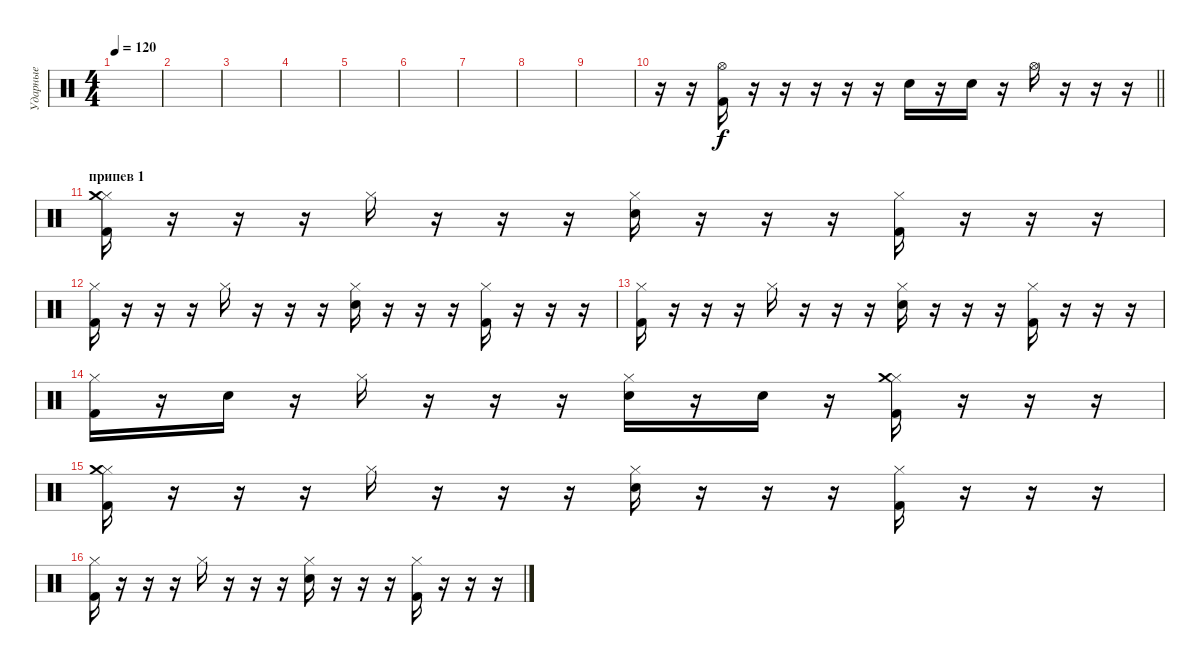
\track ("Ударные" "Ударные") {instrument percussion}
\staff {score}
\articulation defaults
\ts (4 4)
\tempo 120
\clef neutral
\ks c
|
|
|
|
|
|
|
|
|
\barLineRight lightlight
r.16 r.16 ("Hi-Hat (open)" "Kick (hit) 2").16 r.16 r.16 r.16 r.16 r.16 "Snare (hit) 2".16 r.16 "Snare (hit) 2".16 r.16 "Hi-Hat (open)".16 r.16 r.16 r.16 |
\section ("" "припев 1")
("Hi-Hat (closed)" "Kick (hit) 2" "Crash medium (hit)").16 r.16 r.16 r.16 "Hi-Hat (closed)".16 r.16 r.16 r.16 ("Hi-Hat (closed)" "Snare (hit) 2").16 r.16 r.16 r.16 ("Hi-Hat (closed)" "Kick (hit) 2").16 r.16 r.16 r.16 |
("Hi-Hat (closed)" "Kick (hit) 2").16 r.16 r.16 r.16 "Hi-Hat (closed)".16 r.16 r.16 r.16 ("Hi-Hat (closed)" "Snare (hit) 2").16 r.16 r.16 r.16 ("Hi-Hat (closed)" "Kick (hit) 2").16 r.16 r.16 r.16 |
("Hi-Hat (closed)" "Kick (hit) 2").16 r.16 r.16 r.16 "Hi-Hat (closed)".16 r.16 r.16 r.16 ("Hi-Hat (closed)" "Snare (hit) 2").16 r.16 r.16 r.16 ("Hi-Hat (closed)" "Kick (hit) 2").16 r.16 r.16 r.16 |
("Hi-Hat (closed)" "Kick (hit) 2").16 r.16 "Snare (hit) 2".16 r.16 "Hi-Hat (closed)".16 r.16 r.16 r.16 ("Hi-Hat (closed)" "Snare (hit) 2").16 r.16 "Snare (hit) 2".16 r.16 ("Hi-Hat (closed)" "Kick (hit) 2" "Crash medium (hit)").16 r.16 r.16 r.16 |
("Hi-Hat (closed)" "Kick (hit) 2" "Crash medium (hit)").16 r.16 r.16 r.16 "Hi-Hat (closed)".16 r.16 r.16 r.16 ("Hi-Hat (closed)" "Snare (hit) 2").16 r.16 r.16 r.16 ("Hi-Hat (closed)" "Kick (hit) 2").16 r.16 r.16 r.16 |
("Hi-Hat (closed)" "Kick (hit) 2").16 r.16 r.16 r.16 "Hi-Hat (closed)".16 r.16 r.16 r.16 ("Hi-Hat (closed)" "Snare (hit) 2").16 r.16 r.16 r.16 ("Hi-Hat (closed)" "Kick (hit) 2").16 r.16 r.16 r.16
